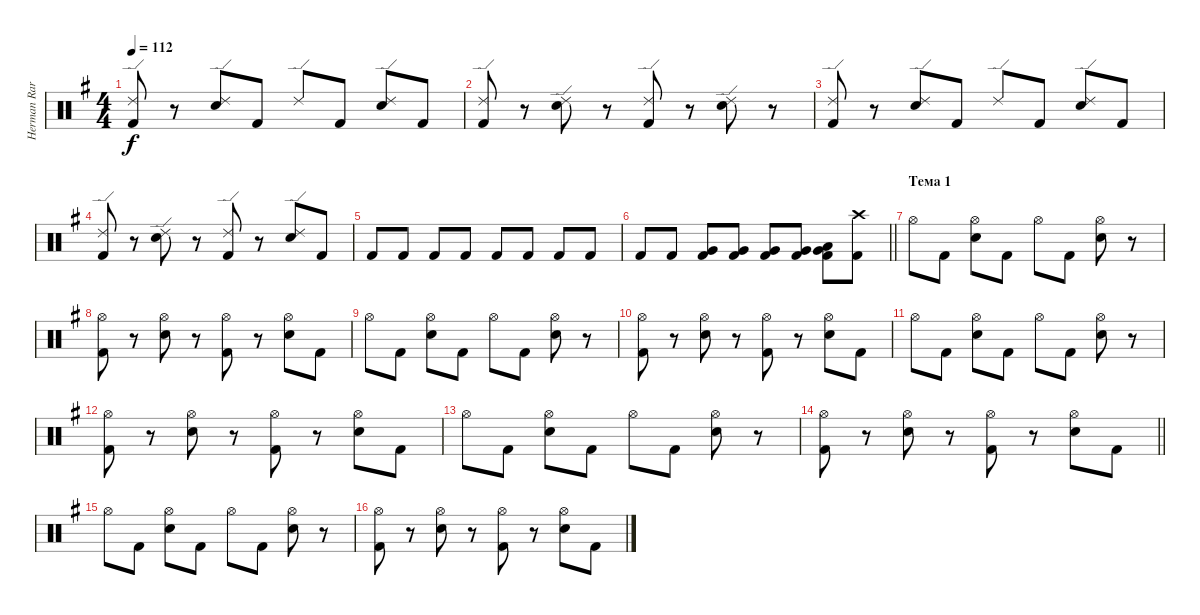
\track ("Herman Rarebell" "Herman Rar") {instrument percussion}
\staff {score}
\articulation defaults
\ts (4 4)
\tempo 112
\clef neutral
\ks eminor
("Ride (edge) 2" "Kick (hit) 2").8{dy f} r.8 ("Ride (edge) 2" "Electric Snare (hit)").8 "Kick (hit) 2".8 "Ride (edge) 2".8 "Kick (hit) 2".8 ("Ride (edge) 2" "Electric Snare (hit)").8 "Kick (hit) 2".8 |
("Ride (edge) 2" "Kick (hit) 2").8 r.8 ("Ride (edge) 2" "Electric Snare (hit)").8 r.8 ("Ride (edge) 2" "Kick (hit) 2").8 r.8 ("Ride (edge) 2" "Electric Snare (hit)").8 r.8 |
("Ride (edge) 2" "Kick (hit) 2").8 r.8 ("Ride (edge) 2" "Electric Snare (hit)").8 "Kick (hit) 2".8 "Ride (edge) 2".8 "Kick (hit) 2".8 ("Ride (edge) 2" "Electric Snare (hit)").8 "Kick (hit) 2".8 |
("Ride (edge) 2" "Kick (hit) 2").8 r.8 ("Ride (edge) 2" "Electric Snare (hit)").8 r.8 ("Ride (edge) 2" "Kick (hit) 2").8 r.8 ("Ride (edge) 2" "Electric Snare (hit)").8 "Kick (hit) 2".8 |
"Kick (hit) 2".8 "Kick (hit) 2".8 "Kick (hit) 2".8 "Kick (hit) 2".8 "Kick (hit) 2".8 "Kick (hit) 2".8 "Kick (hit) 2".8 "Kick (hit) 2".8 |
\barLineRight lightlight "Kick (hit) 2".8 "Kick (hit) 2".8
("Very Low Tom (hit)" "Kick (hit) 2").8 ("Very Low Tom (hit)" "Kick (hit) 2").8 ("Very Low Tom (hit)" "Kick (hit) 2").8 ("Very Low Tom (hit)" "Kick (hit) 2").8 ("Very Low Tom (hit)" "Low Floor Tom (hit)" "Kick (hit) 2").8 ("Crash high (hit)" "Kick (hit) 2").8 |
\section ("" "Тема 1")
"Hi-Hat (open)".8 "Kick (hit) 2".8 ("Hi-Hat (open)" "Electric Snare (hit)").8 "Kick (hit) 2".8 "Hi-Hat (open)".8 "Kick (hit) 2".8 ("Hi-Hat (open)" "Electric Snare (hit)").8 r.8 |
("Hi-Hat (open)" "Kick (hit) 2").8 r.8 ("Hi-Hat (open)" "Electric Snare (hit)").8 r.8 ("Hi-Hat (open)" "Kick (hit) 2").8 r.8 ("Hi-Hat (open)" "Electric Snare (hit)").8 "Kick (hit) 2".8 |
"Hi-Hat (open)".8 "Kick (hit) 2".8 ("Hi-Hat (open)" "Electric Snare (hit)").8 "Kick (hit) 2".8 "Hi-Hat (open)".8 "Kick (hit) 2".8 ("Hi-Hat (open)" "Electric Snare (hit)").8 r.8 |
("Hi-Hat (open)" "Kick (hit) 2").8 r.8 ("Hi-Hat (open)" "Electric Snare (hit)").8 r.8 ("Hi-Hat (open)" "Kick (hit) 2").8 r.8 ("Hi-Hat (open)" "Electric Snare (hit)").8 "Kick (hit) 2".8 |
"Hi-Hat (open)".8 "Kick (hit) 2".8 ("Hi-Hat (open)" "Electric Snare (hit)").8 "Kick (hit) 2".8 "Hi-Hat (open)".8 "Kick (hit) 2".8 ("Hi-Hat (open)" "Electric Snare (hit)").8 r.8 |
("Hi-Hat (open)" "Kick (hit) 2").8 r.8 ("Hi-Hat (open)" "Electric Snare (hit)").8 r.8 ("Hi-Hat (open)" "Kick (hit) 2").8 r.8 ("Hi-Hat (open)" "Electric Snare (hit)").8 "Kick (hit) 2".8 |
"Hi-Hat (open)".8 "Kick (hit) 2".8 ("Hi-Hat (open)" "Electric Snare (hit)").8 "Kick (hit) 2".8 "Hi-Hat (open)".8 "Kick (hit) 2".8 ("Hi-Hat (open)" "Electric Snare (hit)").8 r.8 |
\barLineRight lightlight
("Hi-Hat (open)" "Kick (hit) 2").8 r.8 ("Hi-Hat (open)" "Electric Snare (hit)").8 r.8 ("Hi-Hat (open)" "Kick (hit) 2").8 r.8 ("Hi-Hat (open)" "Electric Snare (hit)").8 "Kick (hit) 2".8 |
"Hi-Hat (open)".8 "Kick (hit) 2".8 ("Hi-Hat (open)" "Electric Snare (hit)").8 "Kick (hit) 2".8 "Hi-Hat (open)".8 "Kick (hit) 2".8 ("Hi-Hat (open)" "Electric Snare (hit)").8 r.8 |
("Hi-Hat (open)" "Kick (hit) 2").8 r.8 ("Hi-Hat (open)" "Electric Snare (hit)").8 r.8 ("Hi-Hat (open)" "Kick (hit) 2").8 r.8 ("Hi-Hat (open)" "Electric Snare (hit)").8 "Kick (hit) 2".8
